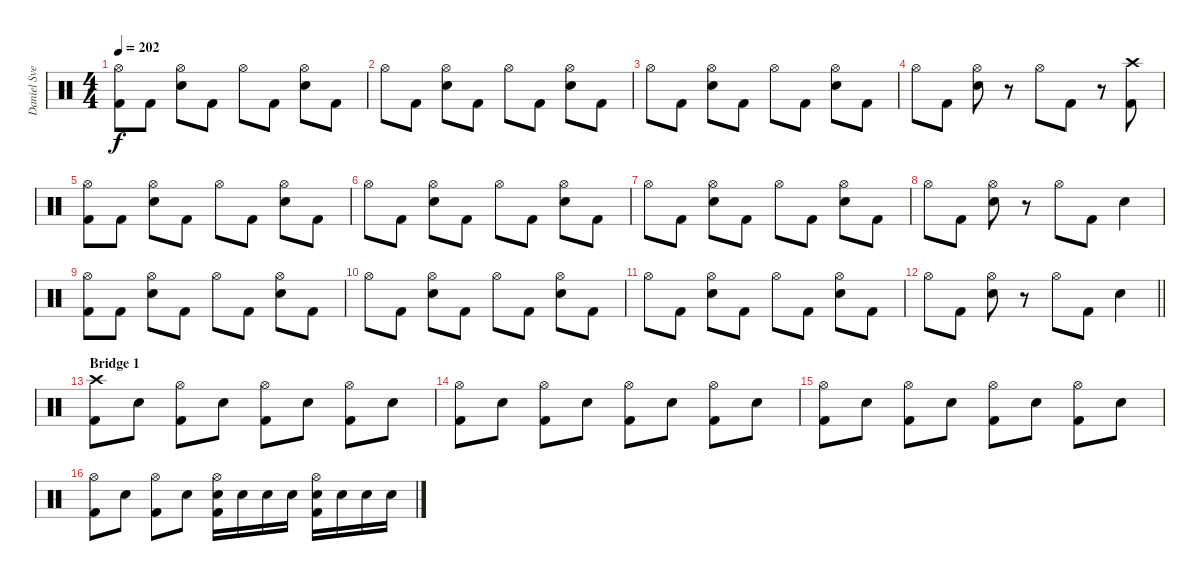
\track ("Daniel Svensson" "Daniel Sve") {instrument percussion}
\staff {score}
\articulation defaults
\ts (4 4)
\tempo 202
\clef neutral
\ks c
("Hi-Hat (open)" "Kick (hit) 2").8{dy f} "Kick (hit) 2".8 ("Hi-Hat (open)" "Electric Snare (hit)").8 "Kick (hit) 2".8 "Hi-Hat (open)".8 "Kick (hit) 2".8 ("Hi-Hat (open)" "Electric Snare (hit)").8 "Kick (hit) 2".8 |
"Hi-Hat (open)".8 "Kick (hit) 2".8 ("Hi-Hat (open)" "Electric Snare (hit)").8 "Kick (hit) 2".8 "Hi-Hat (open)".8 "Kick (hit) 2".8 ("Hi-Hat (open)" "Electric Snare (hit)").8 "Kick (hit) 2".8 |
"Hi-Hat (open)".8 "Kick (hit) 2".8 ("Hi-Hat (open)" "Electric Snare (hit)").8 "Kick (hit) 2".8 "Hi-Hat (open)".8 "Kick (hit) 2".8 ("Hi-Hat (open)" "Electric Snare (hit)").8 "Kick (hit) 2".8 |
"Hi-Hat (open)".8 "Kick (hit) 2".8 ("Hi-Hat (open)" "Electric Snare (hit)").8 r.8 "Hi-Hat (open)".8 "Kick (hit) 2".8 r.8 ("Crash high (hit)" "Kick (hit) 2").8 |
("Hi-Hat (open)" "Kick (hit) 2").8 "Kick (hit) 2".8 ("Hi-Hat (open)" "Electric Snare (hit)").8 "Kick (hit) 2".8 "Hi-Hat (open)".8 "Kick (hit) 2".8 ("Hi-Hat (open)" "Electric Snare (hit)").8 "Kick (hit) 2".8 |
"Hi-Hat (open)".8 "Kick (hit) 2".8 ("Hi-Hat (open)" "Electric Snare (hit)").8 "Kick (hit) 2".8 "Hi-Hat (open)".8 "Kick (hit) 2".8 ("Hi-Hat (open)" "Electric Snare (hit)").8 "Kick (hit) 2".8 |
"Hi-Hat (open)".8 "Kick (hit) 2".8 ("Hi-Hat (open)" "Electric Snare (hit)").8 "Kick (hit) 2".8 "Hi-Hat (open)".8 "Kick (hit) 2".8 ("Hi-Hat (open)" "Electric Snare (hit)").8 "Kick (hit) 2".8 |
"Hi-Hat (open)".8 "Kick (hit) 2".8 ("Hi-Hat (open)" "Electric Snare (hit)").8 r.8 "Hi-Hat (open)".8 "Kick (hit) 2".8 "Electric Snare (hit)".4 |
("Hi-Hat (open)" "Kick (hit) 2").8 "Kick (hit) 2".8 ("Hi-Hat (open)" "Electric Snare (hit)").8 "Kick (hit) 2".8 "Hi-Hat (open)".8 "Kick (hit) 2".8 ("Hi-Hat (open)" "Electric Snare (hit)").8 "Kick (hit) 2".8 |
"Hi-Hat (open)".8 "Kick (hit) 2".8 ("Hi-Hat (open)" "Electric Snare (hit)").8 "Kick (hit) 2".8 "Hi-Hat (open)".8 "Kick (hit) 2".8 ("Hi-Hat (open)" "Electric Snare (hit)").8 "Kick (hit) 2".8 |
"Hi-Hat (open)".8 "Kick (hit) 2".8 ("Hi-Hat (open)" "Electric Snare (hit)").8 "Kick (hit) 2".8 "Hi-Hat (open)".8 "Kick (hit) 2".8 ("Hi-Hat (open)" "Electric Snare (hit)").8 "Kick (hit) 2".8 |
\barLineRight lightlight "Hi-Hat (open)".8 "Kick (hit) 2".8
("Hi-Hat (open)" "Electric Snare (hit)").8 r.8 "Hi-Hat (open)".8 "Kick (hit) 2".8 "Electric Snare (hit)".4 |
\section ("" "Bridge 1")
("Crash high (hit)" "Kick (hit) 2").8 "Electric Snare (hit)".8 ("Hi-Hat (open)" "Kick (hit) 2").8 "Electric Snare (hit)".8 ("Hi-Hat (open)" "Kick (hit) 2").8 "Electric Snare (hit)".8 ("Hi-Hat (open)" "Kick (hit) 2").8 "Electric Snare (hit)".8 |
("Hi-Hat (open)" "Kick (hit) 2").8 "Electric Snare (hit)".8 ("Hi-Hat (open)" "Kick (hit) 2").8 "Electric Snare (hit)".8 ("Hi-Hat (open)" "Kick (hit) 2").8 "Electric Snare (hit)".8 ("Hi-Hat (open)" "Kick (hit) 2").8 "Electric Snare (hit)".8 |
("Hi-Hat (open)" "Kick (hit) 2").8 "Electric Snare (hit)".8 ("Hi-Hat (open)" "Kick (hit) 2").8 "Electric Snare (hit)".8 ("Hi-Hat (open)" "Kick (hit) 2").8 "Electric Snare (hit)".8 ("Hi-Hat (open)" "Kick (hit) 2").8 "Electric Snare (hit)".8 |
("Hi-Hat (open)" "Kick (hit) 2").8 "Electric Snare (hit)".8 ("Hi-Hat (open)" "Kick (hit) 2").8 "Electric Snare (hit)".8 ("Hi-Hat (open)" "Electric Snare (hit)" "Kick (hit) 2").16 "Electric Snare (hit)".16 "Electric Snare (hit)".16 "Electric Snare (hit)".16 ("Hi-Hat (open)" "Electric Snare (hit)" "Kick (hit) 2").16 "Electric Snare (hit)".16 "Electric Snare (hit)".16 "Electric Snare (hit)".16
